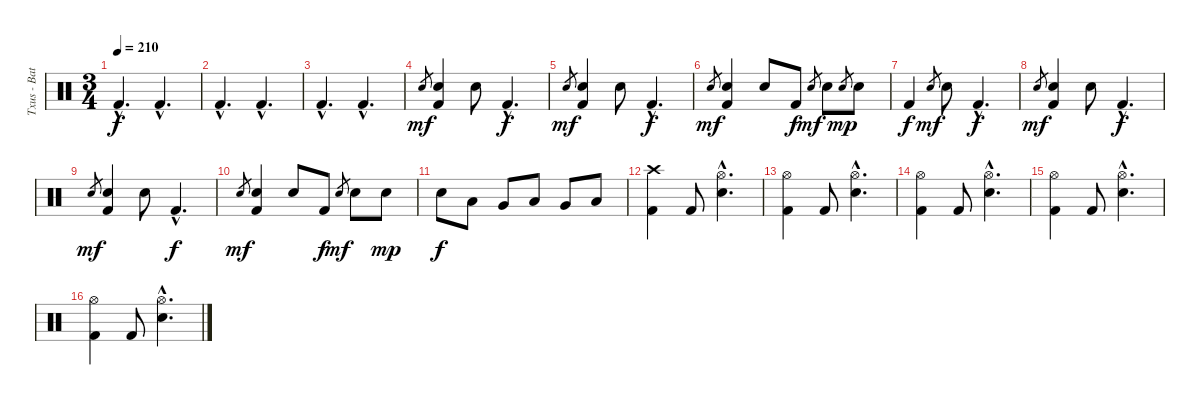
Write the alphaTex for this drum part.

\track ("Txus - Batería" "Txus - Bat") {instrument percussion}
\staff {score}
\articulation defaults
\ts (3 4)
\tempo 210
\clef neutral
\ks c "Kick (hit) 2"{hac}.4{d dy f} "Kick (hit) 2"{hac}.4{d}
|
"Kick (hit) 2"{hac}.4{d} "Kick (hit) 2"{hac}.4{d} |
"Kick (hit) 2"{hac}.4{d} "Kick (hit) 2"{hac}.4{d} |
"Electric Snare (hit)".8{gr dy mf} ("Electric Snare (hit)" "Kick (hit) 2").4 "Electric Snare (hit)".8 "Kick (hit) 2"{hac}.4{d dy f} |
"Electric Snare (hit)".8{gr dy mf} ("Electric Snare (hit)" "Kick (hit) 2").4 "Electric Snare (hit)".8 "Kick (hit) 2"{hac}.4{d dy f} |
"Electric Snare (hit)".8{gr dy mf} ("Electric Snare (hit)" "Kick (hit) 2").4 "Electric Snare (hit)".8 "Kick (hit) 2".8{dy f} "Electric Snare (hit)".8{gr dy mf} "Electric Snare (hit)".8 "Electric Snare (hit)".8{gr dy mp} "Electric Snare (hit)".8 |
"Kick (hit) 2".4{dy f} "Electric Snare (hit)".8{gr dy mf} "Electric Snare (hit)".8 "Kick (hit) 2"{hac}.4{d dy f} |
"Electric Snare (hit)".8{gr dy mf} ("Electric Snare (hit)" "Kick (hit) 2").4 "Electric Snare (hit)".8 "Kick (hit) 2"{hac}.4{d dy f} |
"Electric Snare (hit)".8{gr dy mf} ("Electric Snare (hit)" "Kick (hit) 2").4 "Electric Snare (hit)".8 "Kick (hit) 2"{hac}.4{d dy f} |
"Electric Snare (hit)".8{gr dy mf} ("Electric Snare (hit)" "Kick (hit) 2").4 "Electric Snare (hit)".8 "Kick (hit) 2".8{dy f} "Electric Snare (hit)".8{gr dy mf} "Electric Snare (hit)".8 "Electric Snare (hit)".8{dy mp} |
"Electric Snare (hit)".8{dy f} "Low Tom (hit)".8 "Very Low Tom (hit)".8 "Low Floor Tom (hit)".8 "Very Low Tom (hit)".8 "Low Tom (hit)".8 |
("Crash high (hit)" "Kick (hit) 2").4 "Kick (hit) 2".8 ("Hi-Hat (open)"{hac} "Electric Snare (hit)"{hac}).4{d} |
("Hi-Hat (open)" "Kick (hit) 2").4 "Kick (hit) 2".8 ("Hi-Hat (open)"{hac} "Electric Snare (hit)"{hac}).4{d} |
("Hi-Hat (open)" "Kick (hit) 2").4 "Kick (hit) 2".8 ("Hi-Hat (open)"{hac} "Electric Snare (hit)"{hac}).4{d} |
("Hi-Hat (open)" "Kick (hit) 2").4 "Kick (hit) 2".8 ("Hi-Hat (open)"{hac} "Electric Snare (hit)"{hac}).4{d} |
("Hi-Hat (open)" "Kick (hit) 2").4 "Kick (hit) 2".8 ("Hi-Hat (open)"{hac} "Electric Snare (hit)"{hac}).4{d}
